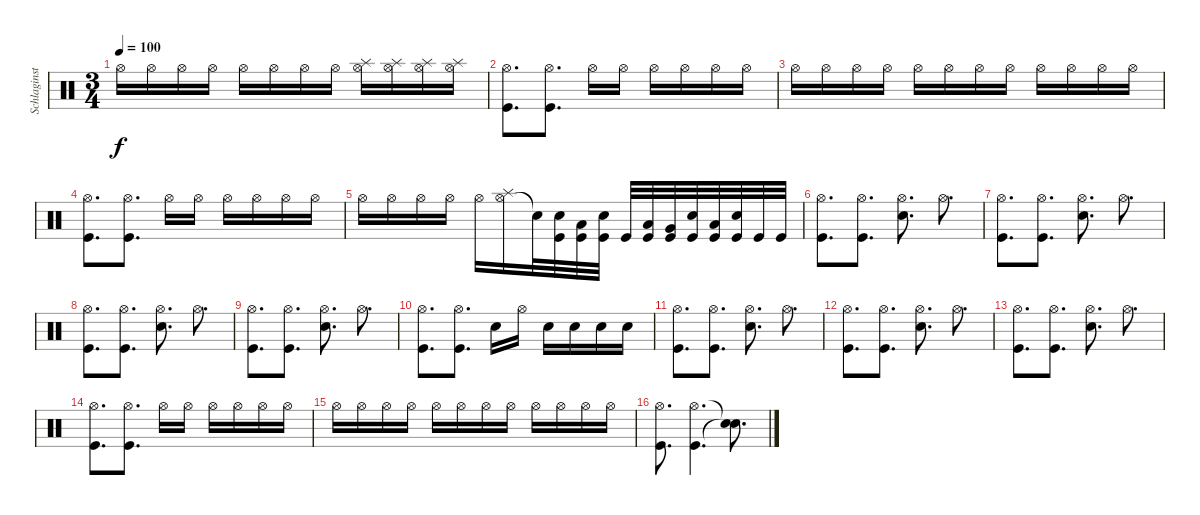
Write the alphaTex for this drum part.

\track ("Schlaginstrumente - Auswahl" "Schlaginst") {instrument percussion}
\staff {score}
\articulation defaults
\ts (3 4)
\tempo 100
\clef neutral
\ks c "Hi-Hat (open)".16{dy f} "Hi-Hat (open)".16 "Hi-Hat (open)".16 "Hi-Hat (open)".16 "Hi-Hat (open)".16 "Hi-Hat (open)".16 "Hi-Hat (open)".16 "Hi-Hat (open)".16
("Hi-Hat (open)" "Splash (hit)").16 ("Hi-Hat (open)" "Splash (hit)").16 ("Hi-Hat (open)" "Splash (hit)").16 ("Hi-Hat (open)" "Splash (hit)").16 |
("Hi-Hat (open)" "Kick (hit)").8{d} ("Hi-Hat (open)" "Kick (hit)").8{d} "Hi-Hat (open)".16 "Hi-Hat (open)".16 "Hi-Hat (open)".16 "Hi-Hat (open)".16 "Hi-Hat (open)".16 "Hi-Hat (open)".16 |
"Hi-Hat (open)".16 "Hi-Hat (open)".16 "Hi-Hat (open)".16 "Hi-Hat (open)".16 "Hi-Hat (open)".16 "Hi-Hat (open)".16 "Hi-Hat (open)".16 "Hi-Hat (open)".16 "Hi-Hat (open)".16 "Hi-Hat (open)".16 "Hi-Hat (open)".16 "Hi-Hat (open)".16 |
("Hi-Hat (open)" "Kick (hit)").8{d} ("Hi-Hat (open)" "Kick (hit)").8{d} "Hi-Hat (open)".16 "Hi-Hat (open)".16 "Hi-Hat (open)".16 "Hi-Hat (open)".16 "Hi-Hat (open)".16 "Hi-Hat (open)".16 |
"Hi-Hat (open)".16 "Hi-Hat (open)".16 "Hi-Hat (open)".16 "Hi-Hat (open)".16 "Hi-Hat (open)".16 ("Hi-Hat (open)" "Splash (hit)").16 "Snare (hit)"{t}.32 ("Snare (hit) 2" "Kick (hit)").32 ("Low Floor Tom (hit)" "Kick (hit)").32 ("Snare (hit) 2" "Kick (hit)").32 "Kick (hit)".32 ("Low Floor Tom (hit)" "Kick (hit)").32 ("Very Low Tom (hit)" "Kick (hit)").32 ("Snare (hit) 2" "Kick (hit)").32 ("Low Floor Tom (hit)" "Kick (hit)").32 ("Snare (hit) 2" "Kick (hit)").32 "Kick (hit)".32 "Kick (hit)".32 |
("Hi-Hat (open)" "Kick (hit)").8{d} ("Hi-Hat (open)" "Kick (hit)").8{d} ("Hi-Hat (open)" "Snare (hit) 2").8{d} "Hi-Hat (open)".8{d} |
("Hi-Hat (open)" "Kick (hit)").8{d} ("Hi-Hat (open)" "Kick (hit)").8{d} ("Hi-Hat (open)" "Snare (hit) 2").8{d} "Hi-Hat (open)".8{d} |
("Hi-Hat (open)" "Kick (hit)").8{d} ("Hi-Hat (open)" "Kick (hit)").8{d} ("Hi-Hat (open)" "Snare (hit) 2").8{d} "Hi-Hat (open)".8{d} |
("Hi-Hat (open)" "Kick (hit)").8{d} ("Hi-Hat (open)" "Kick (hit)").8{d} ("Hi-Hat (open)" "Snare (hit) 2").8{d} "Hi-Hat (open)".8{d} |
("Hi-Hat (open)" "Kick (hit)").8{d} ("Hi-Hat (open)" "Kick (hit)").8{d} "Snare (hit) 2".16 "Hi-Hat (open)".16 "Snare (hit) 2".16 "Snare (hit) 2".16 "Snare (hit) 2".16 "Snare (hit) 2".16 |
("Hi-Hat (open)" "Kick (hit)").8{d} ("Hi-Hat (open)" "Kick (hit)").8{d} ("Hi-Hat (open)" "Snare (hit) 2").8{d} "Hi-Hat (open)".8{d} |
("Hi-Hat (open)" "Kick (hit)").8{d} ("Hi-Hat (open)" "Kick (hit)").8{d} ("Hi-Hat (open)" "Snare (hit) 2").8{d} "Hi-Hat (open)".8{d} |
("Hi-Hat (open)" "Kick (hit)").8{d} ("Hi-Hat (open)" "Kick (hit)").8{d} ("Hi-Hat (open)" "Snare (hit) 2").8{d} "Hi-Hat (open)".8{d} |
("Hi-Hat (open)" "Kick (hit)").8{d} ("Hi-Hat (open)" "Kick (hit)").8{d} "Hi-Hat (open)".16 "Hi-Hat (open)".16 "Hi-Hat (open)".16 "Hi-Hat (open)".16 "Hi-Hat (open)".16 "Hi-Hat (open)".16 |
"Hi-Hat (open)".16 "Hi-Hat (open)".16 "Hi-Hat (open)".16 "Hi-Hat (open)".16 "Hi-Hat (open)".16 "Hi-Hat (open)".16 "Hi-Hat (open)".16 "Hi-Hat (open)".16 "Hi-Hat (open)".16 "Hi-Hat (open)".16 "Hi-Hat (open)".16 "Hi-Hat (open)".16 |
("Hi-Hat (open)" "Kick (hit)").8{d} ("Hi-Hat (open)" "Kick (hit)").4{d} ("Snare (hit)"{t} "Snare (hit)"{t}).8{d}
